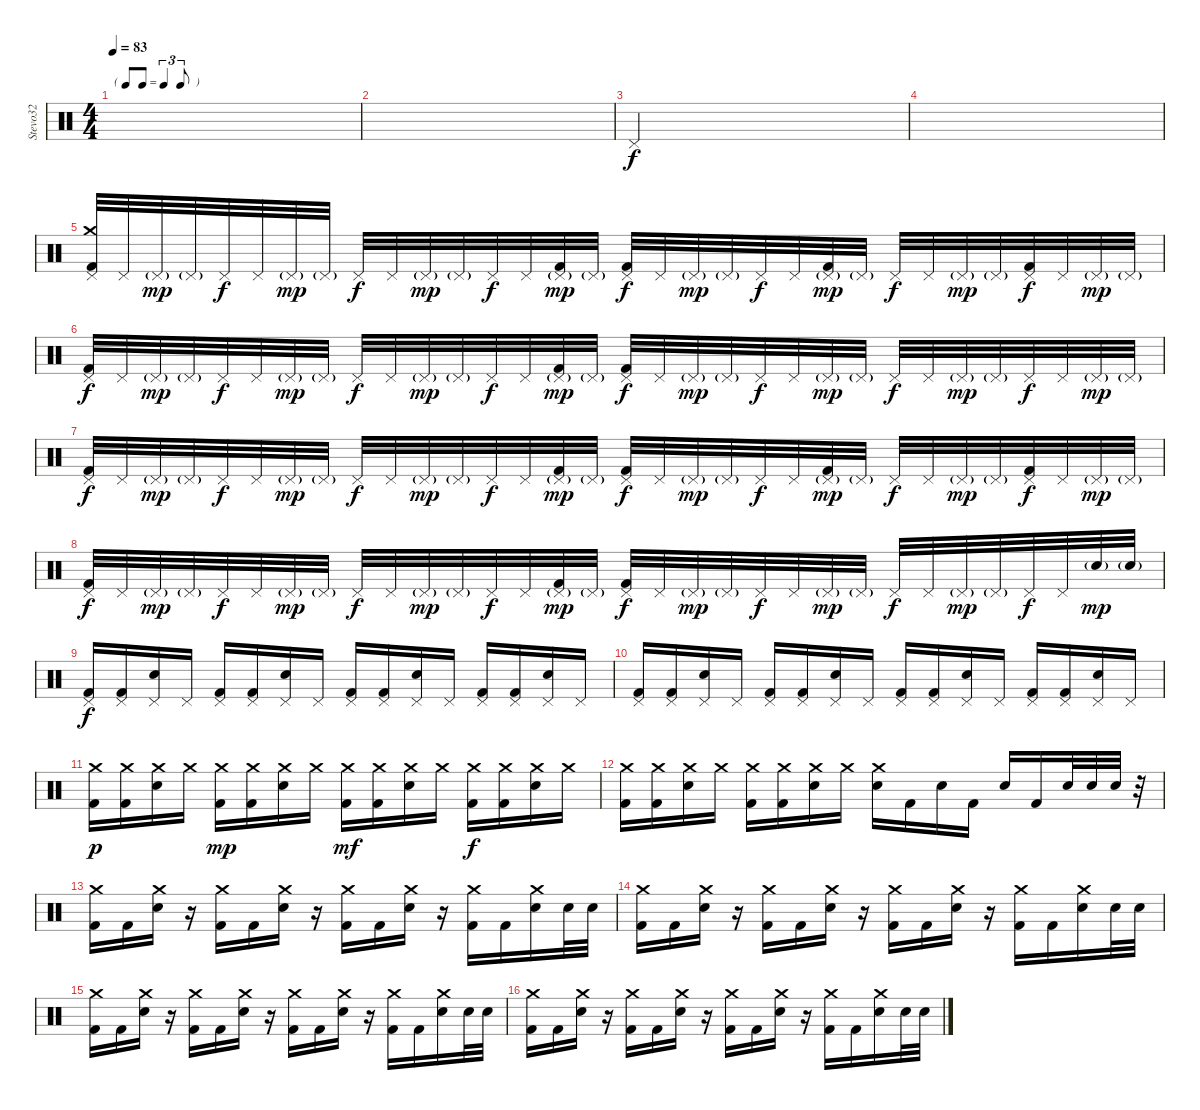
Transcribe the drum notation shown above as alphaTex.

\track ("Stevo32" "Stevo32") {instrument percussion}
\staff {score}
\articulation defaults
\ts (4 4)
\tf triplet8th
\tempo 83
\clef neutral
\ks c
|
|
"Pedal Hi-Hat (hit)".4 |
|
("Crash medium (hit)" "Pedal Hi-Hat (hit)" "Kick (hit) 2").32 "Pedal Hi-Hat (hit)".32 "Pedal Hi-Hat (hit)"{g}.32{dy mp} "Pedal Hi-Hat (hit)"{g}.32 "Pedal Hi-Hat (hit)".32{dy f} "Pedal Hi-Hat (hit)".32 "Pedal Hi-Hat (hit)"{g}.32{dy mp} "Pedal Hi-Hat (hit)"{g}.32 "Pedal Hi-Hat (hit)".32{dy f} "Pedal Hi-Hat (hit)".32 "Pedal Hi-Hat (hit)"{g}.32{dy mp} "Pedal Hi-Hat (hit)"{g}.32 "Pedal Hi-Hat (hit)".32{dy f} "Pedal Hi-Hat (hit)".32 ("Pedal Hi-Hat (hit)"{g} "Kick (hit) 2").32{dy mp} "Pedal Hi-Hat (hit)"{g}.32 ("Pedal Hi-Hat (hit)" "Kick (hit) 2").32{dy f} "Pedal Hi-Hat (hit)".32 "Pedal Hi-Hat (hit)"{g}.32{dy mp} "Pedal Hi-Hat (hit)"{g}.32 "Pedal Hi-Hat (hit)".32{dy f} "Pedal Hi-Hat (hit)".32 ("Pedal Hi-Hat (hit)"{g} "Kick (hit) 2").32{dy mp} "Pedal Hi-Hat (hit)"{g}.32 "Pedal Hi-Hat (hit)".32{dy f} "Pedal Hi-Hat (hit)".32 "Pedal Hi-Hat (hit)"{g}.32{dy mp} "Pedal Hi-Hat (hit)"{g}.32 ("Pedal Hi-Hat (hit)" "Kick (hit) 2").32{dy f} "Pedal Hi-Hat (hit)".32 "Pedal Hi-Hat (hit)"{g}.32{dy mp} "Pedal Hi-Hat (hit)"{g}.32 |
("Pedal Hi-Hat (hit)" "Kick (hit) 2").32{dy f} "Pedal Hi-Hat (hit)".32 "Pedal Hi-Hat (hit)"{g}.32{dy mp} "Pedal Hi-Hat (hit)"{g}.32 "Pedal Hi-Hat (hit)".32{dy f} "Pedal Hi-Hat (hit)".32 "Pedal Hi-Hat (hit)"{g}.32{dy mp} "Pedal Hi-Hat (hit)"{g}.32 "Pedal Hi-Hat (hit)".32{dy f} "Pedal Hi-Hat (hit)".32 "Pedal Hi-Hat (hit)"{g}.32{dy mp} "Pedal Hi-Hat (hit)"{g}.32 "Pedal Hi-Hat (hit)".32{dy f} "Pedal Hi-Hat (hit)".32 ("Pedal Hi-Hat (hit)"{g} "Kick (hit) 2").32{dy mp} "Pedal Hi-Hat (hit)"{g}.32 ("Pedal Hi-Hat (hit)" "Kick (hit) 2").32{dy f} "Pedal Hi-Hat (hit)".32 "Pedal Hi-Hat (hit)"{g}.32{dy mp} "Pedal Hi-Hat (hit)"{g}.32 "Pedal Hi-Hat (hit)".32{dy f} "Pedal Hi-Hat (hit)".32 "Pedal Hi-Hat (hit)"{g}.32{dy mp} "Pedal Hi-Hat (hit)"{g}.32 "Pedal Hi-Hat (hit)".32{dy f} "Pedal Hi-Hat (hit)".32 "Pedal Hi-Hat (hit)"{g}.32{dy mp} "Pedal Hi-Hat (hit)"{g}.32 "Pedal Hi-Hat (hit)".32{dy f} "Pedal Hi-Hat (hit)".32 "Pedal Hi-Hat (hit)"{g}.32{dy mp} "Pedal Hi-Hat (hit)"{g}.32 |
("Pedal Hi-Hat (hit)" "Kick (hit) 2").32{dy f} "Pedal Hi-Hat (hit)".32 "Pedal Hi-Hat (hit)"{g}.32{dy mp} "Pedal Hi-Hat (hit)"{g}.32 "Pedal Hi-Hat (hit)".32{dy f} "Pedal Hi-Hat (hit)".32 "Pedal Hi-Hat (hit)"{g}.32{dy mp} "Pedal Hi-Hat (hit)"{g}.32 "Pedal Hi-Hat (hit)".32{dy f} "Pedal Hi-Hat (hit)".32 "Pedal Hi-Hat (hit)"{g}.32{dy mp} "Pedal Hi-Hat (hit)"{g}.32 "Pedal Hi-Hat (hit)".32{dy f} "Pedal Hi-Hat (hit)".32 ("Pedal Hi-Hat (hit)"{g} "Kick (hit) 2").32{dy mp} "Pedal Hi-Hat (hit)"{g}.32 ("Pedal Hi-Hat (hit)" "Kick (hit) 2").32{dy f} "Pedal Hi-Hat (hit)".32 "Pedal Hi-Hat (hit)"{g}.32{dy mp} "Pedal Hi-Hat (hit)"{g}.32 "Pedal Hi-Hat (hit)".32{dy f} "Pedal Hi-Hat (hit)".32 ("Pedal Hi-Hat (hit)"{g} "Kick (hit) 2").32{dy mp} "Pedal Hi-Hat (hit)"{g}.32 "Pedal Hi-Hat (hit)".32{dy f} "Pedal Hi-Hat (hit)".32 "Pedal Hi-Hat (hit)"{g}.32{dy mp} "Pedal Hi-Hat (hit)"{g}.32 ("Pedal Hi-Hat (hit)" "Kick (hit) 2").32{dy f} "Pedal Hi-Hat (hit)".32 "Pedal Hi-Hat (hit)"{g}.32{dy mp} "Pedal Hi-Hat (hit)"{g}.32 |
("Pedal Hi-Hat (hit)" "Kick (hit) 2").32{dy f} "Pedal Hi-Hat (hit)".32 "Pedal Hi-Hat (hit)"{g}.32{dy mp} "Pedal Hi-Hat (hit)"{g}.32 "Pedal Hi-Hat (hit)".32{dy f} "Pedal Hi-Hat (hit)".32 "Pedal Hi-Hat (hit)"{g}.32{dy mp} "Pedal Hi-Hat (hit)"{g}.32 "Pedal Hi-Hat (hit)".32{dy f} "Pedal Hi-Hat (hit)".32 "Pedal Hi-Hat (hit)"{g}.32{dy mp} "Pedal Hi-Hat (hit)"{g}.32 "Pedal Hi-Hat (hit)".32{dy f} "Pedal Hi-Hat (hit)".32 ("Pedal Hi-Hat (hit)"{g} "Kick (hit) 2").32{dy mp} "Pedal Hi-Hat (hit)"{g}.32 ("Pedal Hi-Hat (hit)" "Kick (hit) 2").32{dy f} "Pedal Hi-Hat (hit)".32 "Pedal Hi-Hat (hit)"{g}.32{dy mp} "Pedal Hi-Hat (hit)"{g}.32 "Pedal Hi-Hat (hit)".32{dy f} "Pedal Hi-Hat (hit)".32 "Pedal Hi-Hat (hit)"{g}.32{dy mp} "Pedal Hi-Hat (hit)"{g}.32 "Pedal Hi-Hat (hit)".32{dy f} "Pedal Hi-Hat (hit)".32 "Pedal Hi-Hat (hit)"{g}.32{dy mp} "Pedal Hi-Hat (hit)"{g}.32 "Pedal Hi-Hat (hit)".32{dy f} "Pedal Hi-Hat (hit)".32 "Electric Snare (hit)"{g}.32{dy mp} "Electric Snare (hit)"{g}.32 |
("Pedal Hi-Hat (hit)" "Kick (hit) 2").16{dy f} ("Pedal Hi-Hat (hit)" "Kick (hit) 2").16 ("Pedal Hi-Hat (hit)" "Electric Snare (hit)").16 "Pedal Hi-Hat (hit)".16 ("Pedal Hi-Hat (hit)" "Kick (hit) 2").16 ("Pedal Hi-Hat (hit)" "Kick (hit) 2").16 ("Pedal Hi-Hat (hit)" "Electric Snare (hit)").16 "Pedal Hi-Hat (hit)".16 ("Pedal Hi-Hat (hit)" "Kick (hit) 2").16 ("Pedal Hi-Hat (hit)" "Kick (hit) 2").16 ("Pedal Hi-Hat (hit)" "Electric Snare (hit)").16 "Pedal Hi-Hat (hit)".16 ("Pedal Hi-Hat (hit)" "Kick (hit) 2").16 ("Pedal Hi-Hat (hit)" "Kick (hit) 2").16 ("Pedal Hi-Hat (hit)" "Electric Snare (hit)").16 "Pedal Hi-Hat (hit)".16 |
("Pedal Hi-Hat (hit)" "Kick (hit) 2").16 ("Pedal Hi-Hat (hit)" "Kick (hit) 2").16 ("Pedal Hi-Hat (hit)" "Electric Snare (hit)").16 "Pedal Hi-Hat (hit)".16 ("Pedal Hi-Hat (hit)" "Kick (hit) 2").16 ("Pedal Hi-Hat (hit)" "Kick (hit) 2").16 ("Pedal Hi-Hat (hit)" "Electric Snare (hit)").16 "Pedal Hi-Hat (hit)".16 ("Pedal Hi-Hat (hit)" "Kick (hit) 2").16 ("Pedal Hi-Hat (hit)" "Kick (hit) 2").16 ("Pedal Hi-Hat (hit)" "Electric Snare (hit)").16 "Pedal Hi-Hat (hit)".16 ("Pedal Hi-Hat (hit)" "Kick (hit) 2").16 ("Pedal Hi-Hat (hit)" "Kick (hit) 2").16 ("Pedal Hi-Hat (hit)" "Electric Snare (hit)").16 "Pedal Hi-Hat (hit)".16 |
("Crash medium (hit)" "Kick (hit) 2").16{dy p} ("Crash medium (hit)" "Kick (hit) 2").16 ("Crash medium (hit)" "Electric Snare (hit)").16 "Crash medium (hit)".16 ("Crash medium (hit)" "Kick (hit) 2").16{dy mp} ("Crash medium (hit)" "Kick (hit) 2").16 ("Crash medium (hit)" "Electric Snare (hit)").16 "Crash medium (hit)".16 ("Crash medium (hit)" "Kick (hit) 2").16{dy mf} ("Crash medium (hit)" "Kick (hit) 2").16 ("Crash medium (hit)" "Electric Snare (hit)").16 "Crash medium (hit)".16 ("Crash medium (hit)" "Kick (hit) 2").16{dy f} ("Crash medium (hit)" "Kick (hit) 2").16 ("Crash medium (hit)" "Electric Snare (hit)").16 "Crash medium (hit)".16 |
("Crash medium (hit)" "Kick (hit) 2").16 ("Crash medium (hit)" "Kick (hit) 2").16 ("Crash medium (hit)" "Electric Snare (hit)").16 "Crash medium (hit)".16 ("Crash medium (hit)" "Kick (hit) 2").16 ("Crash medium (hit)" "Kick (hit) 2").16 ("Crash medium (hit)" "Electric Snare (hit)").16 "Crash medium (hit)".16 ("Crash medium (hit)" "Electric Snare (hit)").16 "Kick (hit) 2".16 "Electric Snare (hit)".16 "Kick (hit) 2".16 "Electric Snare (hit)".16 "Kick (hit) 2".16 "Electric Snare (hit)".32 "Electric Snare (hit)".32 "Electric Snare (hit)".32 r.32 |
("Crash medium (hit)" "Kick (hit) 2").16 "Kick (hit) 2".16 ("Crash medium (hit)" "Electric Snare (hit)").16 r.16 ("Crash medium (hit)" "Kick (hit) 2").16 "Kick (hit) 2".16 ("Crash medium (hit)" "Electric Snare (hit)").16 r.16 ("Crash medium (hit)" "Kick (hit) 2").16 "Kick (hit) 2".16 ("Crash medium (hit)" "Electric Snare (hit)").16 r.16 ("Crash medium (hit)" "Kick (hit) 2").16 "Kick (hit) 2".16 ("Crash medium (hit)" "Electric Snare (hit)").16 "Electric Snare (hit)".32 "Electric Snare (hit)".32 |
("Crash medium (hit)" "Kick (hit) 2").16 "Kick (hit) 2".16 ("Crash medium (hit)" "Electric Snare (hit)").16 r.16 ("Crash medium (hit)" "Kick (hit) 2").16 "Kick (hit) 2".16 ("Crash medium (hit)" "Electric Snare (hit)").16 r.16 ("Crash medium (hit)" "Kick (hit) 2").16 "Kick (hit) 2".16 ("Crash medium (hit)" "Electric Snare (hit)").16 r.16 ("Crash medium (hit)" "Kick (hit) 2").16 "Kick (hit) 2".16 ("Crash medium (hit)" "Electric Snare (hit)").16 "Electric Snare (hit)".32 "Electric Snare (hit)".32 |
("Crash medium (hit)" "Kick (hit) 2").16 "Kick (hit) 2".16 ("Crash medium (hit)" "Electric Snare (hit)").16 r.16 ("Crash medium (hit)" "Kick (hit) 2").16 "Kick (hit) 2".16 ("Crash medium (hit)" "Electric Snare (hit)").16 r.16 ("Crash medium (hit)" "Kick (hit) 2").16 "Kick (hit) 2".16 ("Crash medium (hit)" "Electric Snare (hit)").16 r.16 ("Crash medium (hit)" "Kick (hit) 2").16 "Kick (hit) 2".16 ("Crash medium (hit)" "Electric Snare (hit)").16 "Electric Snare (hit)".32 "Electric Snare (hit)".32 |
("Crash medium (hit)" "Kick (hit) 2").16 "Kick (hit) 2".16 ("Crash medium (hit)" "Electric Snare (hit)").16 r.16 ("Crash medium (hit)" "Kick (hit) 2").16 "Kick (hit) 2".16 ("Crash medium (hit)" "Electric Snare (hit)").16 r.16 ("Crash medium (hit)" "Kick (hit) 2").16 "Kick (hit) 2".16 ("Crash medium (hit)" "Electric Snare (hit)").16 r.16 ("Crash medium (hit)" "Kick (hit) 2").16 "Kick (hit) 2".16 ("Crash medium (hit)" "Electric Snare (hit)").16 "Electric Snare (hit)".32 "Electric Snare (hit)".32
